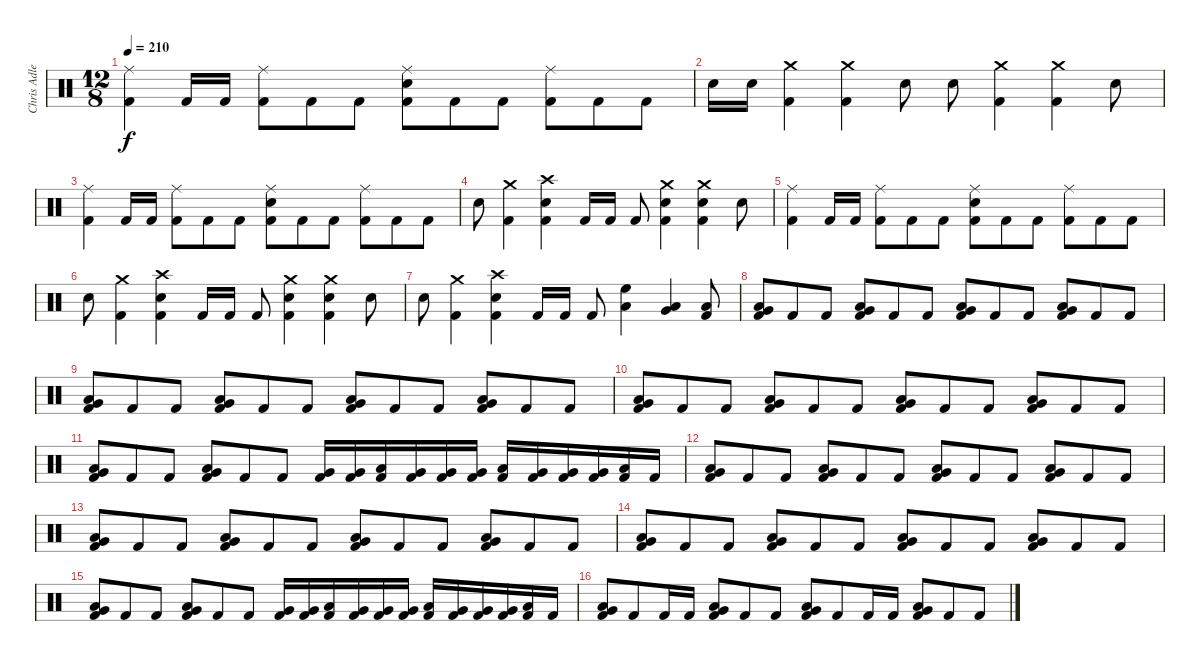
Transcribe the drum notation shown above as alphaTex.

\track ("Chris Adler" "Chris Adle") {instrument percussion}
\staff {score}
\articulation defaults
\ts (12 8)
\tempo 210
\clef neutral
\ks c
("Ride (middle)" "Kick (hit) 2").4{dy f} "Kick (hit) 2".16 "Kick (hit) 2".16 ("Ride (middle)" "Kick (hit) 2").8 "Kick (hit) 2".8 "Kick (hit) 2".8 ("Ride (middle)" "Snare (hit) 2" "Kick (hit) 2").8 "Kick (hit) 2".8 "Kick (hit) 2".8 ("Ride (middle)" "Kick (hit) 2").8 "Kick (hit) 2".8 "Kick (hit) 2".8 |
"Snare (hit) 2".16 "Snare (hit) 2".16 ("Crash medium (hit)" "Kick (hit) 2").4 ("Crash medium (hit)" "Kick (hit) 2").4 "Snare (hit) 2".8 "Snare (hit) 2".8 ("Crash medium (hit)" "Kick (hit) 2").4 ("Crash medium (hit)" "Kick (hit) 2").4 "Snare (hit) 2".8 |
("Ride (middle)" "Kick (hit) 2").4 "Kick (hit) 2".16 "Kick (hit) 2".16 ("Ride (middle)" "Kick (hit) 2").8 "Kick (hit) 2".8 "Kick (hit) 2".8 ("Ride (middle)" "Snare (hit) 2" "Kick (hit) 2").8 "Kick (hit) 2".8 "Kick (hit) 2".8 ("Ride (middle)" "Kick (hit) 2").8 "Kick (hit) 2".8 "Kick (hit) 2".8 |
"Snare (hit) 2".8 ("Crash medium (hit)" "Kick (hit) 2").4 ("Crash high (hit)" "Snare (hit) 2" "Kick (hit) 2").4 "Kick (hit) 2".16 "Kick (hit) 2".16 "Kick (hit) 2".8 ("Crash medium (hit)" "Snare (hit) 2" "Kick (hit) 2").4 ("Crash medium (hit)" "Snare (hit) 2" "Kick (hit) 2").4 "Snare (hit) 2".8 |
("Ride (middle)" "Kick (hit) 2").4 "Kick (hit) 2".16 "Kick (hit) 2".16 ("Ride (middle)" "Kick (hit) 2").8 "Kick (hit) 2".8 "Kick (hit) 2".8 ("Ride (middle)" "Snare (hit) 2" "Kick (hit) 2").8 "Kick (hit) 2".8 "Kick (hit) 2".8 ("Ride (middle)" "Kick (hit) 2").8 "Kick (hit) 2".8 "Kick (hit) 2".8 |
"Snare (hit) 2".8 ("Crash medium (hit)" "Kick (hit) 2").4 ("Crash high (hit)" "Snare (hit) 2" "Kick (hit) 2").4 "Kick (hit) 2".16 "Kick (hit) 2".16 "Kick (hit) 2".8 ("Crash medium (hit)" "Snare (hit) 2" "Kick (hit) 2").4 ("Crash medium (hit)" "Snare (hit) 2" "Kick (hit) 2").4 "Snare (hit) 2".8 |
"Snare (hit) 2".8 ("Crash medium (hit)" "Kick (hit) 2").4 ("Crash high (hit)" "Snare (hit) 2" "Kick (hit) 2").4 "Kick (hit) 2".16 "Kick (hit) 2".16 "Kick (hit) 2".8 ("Low Tom (hit)" "High Floor Tom (hit)").4 ("Very Low Tom (hit)" "Low Tom (hit)").4 ("Low Tom (hit)" "Kick (hit) 2").8 |
("Very Low Tom (hit)" "Low Tom (hit)" "Kick (hit) 2").8 "Kick (hit) 2".8 "Kick (hit) 2".8 ("Very Low Tom (hit)" "Low Tom (hit)" "Kick (hit) 2").8 "Kick (hit) 2".8 "Kick (hit) 2".8 ("Very Low Tom (hit)" "Low Tom (hit)" "Kick (hit) 2").8 "Kick (hit) 2".8 "Kick (hit) 2".8 ("Very Low Tom (hit)" "Low Tom (hit)" "Kick (hit) 2").8 "Kick (hit) 2".8 "Kick (hit) 2".8 |
("Very Low Tom (hit)" "Low Tom (hit)" "Kick (hit) 2").8 "Kick (hit) 2".8 "Kick (hit) 2".8 ("Very Low Tom (hit)" "Low Tom (hit)" "Kick (hit) 2").8 "Kick (hit) 2".8 "Kick (hit) 2".8 ("Very Low Tom (hit)" "Low Tom (hit)" "Kick (hit) 2").8 "Kick (hit) 2".8 "Kick (hit) 2".8 ("Very Low Tom (hit)" "Low Tom (hit)" "Kick (hit) 2").8 "Kick (hit) 2".8 "Kick (hit) 2".8 |
("Very Low Tom (hit)" "Low Tom (hit)" "Kick (hit) 2").8 "Kick (hit) 2".8 "Kick (hit) 2".8 ("Very Low Tom (hit)" "Low Tom (hit)" "Kick (hit) 2").8 "Kick (hit) 2".8 "Kick (hit) 2".8 ("Very Low Tom (hit)" "Low Tom (hit)" "Kick (hit) 2").8 "Kick (hit) 2".8 "Kick (hit) 2".8 ("Very Low Tom (hit)" "Low Tom (hit)" "Kick (hit) 2").8 "Kick (hit) 2".8 "Kick (hit) 2".8 |
("Very Low Tom (hit)" "Low Tom (hit)" "Kick (hit) 2").8 "Kick (hit) 2".8 "Kick (hit) 2".8 ("Very Low Tom (hit)" "Low Tom (hit)" "Kick (hit) 2").8 "Kick (hit) 2".8 "Kick (hit) 2".8 ("Very Low Tom (hit)" "Kick (hit) 2").16 ("Very Low Tom (hit)" "Kick (hit) 2").16 ("Low Tom (hit)" "Kick (hit) 2").16 ("Very Low Tom (hit)" "Kick (hit) 2").16 ("Very Low Tom (hit)" "Kick (hit) 2").16 ("Very Low Tom (hit)" "Kick (hit) 2").16 ("Low Tom (hit)" "Kick (hit) 2").16 ("Very Low Tom (hit)" "Kick (hit) 2").16 ("Very Low Tom (hit)" "Kick (hit) 2").16 ("Very Low Tom (hit)" "Kick (hit) 2").16 ("Low Tom (hit)" "Kick (hit) 2").16 "Kick (hit) 2".16 |
("Very Low Tom (hit)" "Low Tom (hit)" "Kick (hit) 2").8 "Kick (hit) 2".8 "Kick (hit) 2".8 ("Very Low Tom (hit)" "Low Tom (hit)" "Kick (hit) 2").8 "Kick (hit) 2".8 "Kick (hit) 2".8 ("Very Low Tom (hit)" "Low Tom (hit)" "Kick (hit) 2").8 "Kick (hit) 2".8 "Kick (hit) 2".8 ("Very Low Tom (hit)" "Low Tom (hit)" "Kick (hit) 2").8 "Kick (hit) 2".8 "Kick (hit) 2".8 |
("Very Low Tom (hit)" "Low Tom (hit)" "Kick (hit) 2").8 "Kick (hit) 2".8 "Kick (hit) 2".8 ("Very Low Tom (hit)" "Low Tom (hit)" "Kick (hit) 2").8 "Kick (hit) 2".8 "Kick (hit) 2".8 ("Very Low Tom (hit)" "Low Tom (hit)" "Kick (hit) 2").8 "Kick (hit) 2".8 "Kick (hit) 2".8 ("Very Low Tom (hit)" "Low Tom (hit)" "Kick (hit) 2").8 "Kick (hit) 2".8 "Kick (hit) 2".8 |
("Very Low Tom (hit)" "Low Tom (hit)" "Kick (hit) 2").8 "Kick (hit) 2".8 "Kick (hit) 2".8 ("Very Low Tom (hit)" "Low Tom (hit)" "Kick (hit) 2").8 "Kick (hit) 2".8 "Kick (hit) 2".8 ("Very Low Tom (hit)" "Low Tom (hit)" "Kick (hit) 2").8 "Kick (hit) 2".8 "Kick (hit) 2".8 ("Very Low Tom (hit)" "Low Tom (hit)" "Kick (hit) 2").8 "Kick (hit) 2".8 "Kick (hit) 2".8 |
("Very Low Tom (hit)" "Low Tom (hit)" "Kick (hit) 2").8 "Kick (hit) 2".8 "Kick (hit) 2".8 ("Very Low Tom (hit)" "Low Tom (hit)" "Kick (hit) 2").8 "Kick (hit) 2".8 "Kick (hit) 2".8 ("Very Low Tom (hit)" "Kick (hit) 2").16 ("Very Low Tom (hit)" "Kick (hit) 2").16 ("Low Tom (hit)" "Kick (hit) 2").16 ("Very Low Tom (hit)" "Kick (hit) 2").16 ("Very Low Tom (hit)" "Kick (hit) 2").16 ("Very Low Tom (hit)" "Kick (hit) 2").16 ("Low Tom (hit)" "Kick (hit) 2").16 ("Very Low Tom (hit)" "Kick (hit) 2").16 ("Very Low Tom (hit)" "Kick (hit) 2").16 ("Very Low Tom (hit)" "Kick (hit) 2").16 ("Low Tom (hit)" "Kick (hit) 2").16 "Kick (hit) 2".16 |
("Very Low Tom (hit)" "Low Tom (hit)" "Kick (hit) 2").8 "Kick (hit) 2".8 "Kick (hit) 2".16 "Kick (hit) 2".16 ("Very Low Tom (hit)" "Low Tom (hit)" "Kick (hit) 2").8 "Kick (hit) 2".8 "Kick (hit) 2".8 ("Very Low Tom (hit)" "Low Tom (hit)" "Kick (hit) 2").8 "Kick (hit) 2".8 "Kick (hit) 2".16 "Kick (hit) 2".16 ("Very Low Tom (hit)" "Low Tom (hit)" "Kick (hit) 2").8 "Kick (hit) 2".8 "Kick (hit) 2".8
